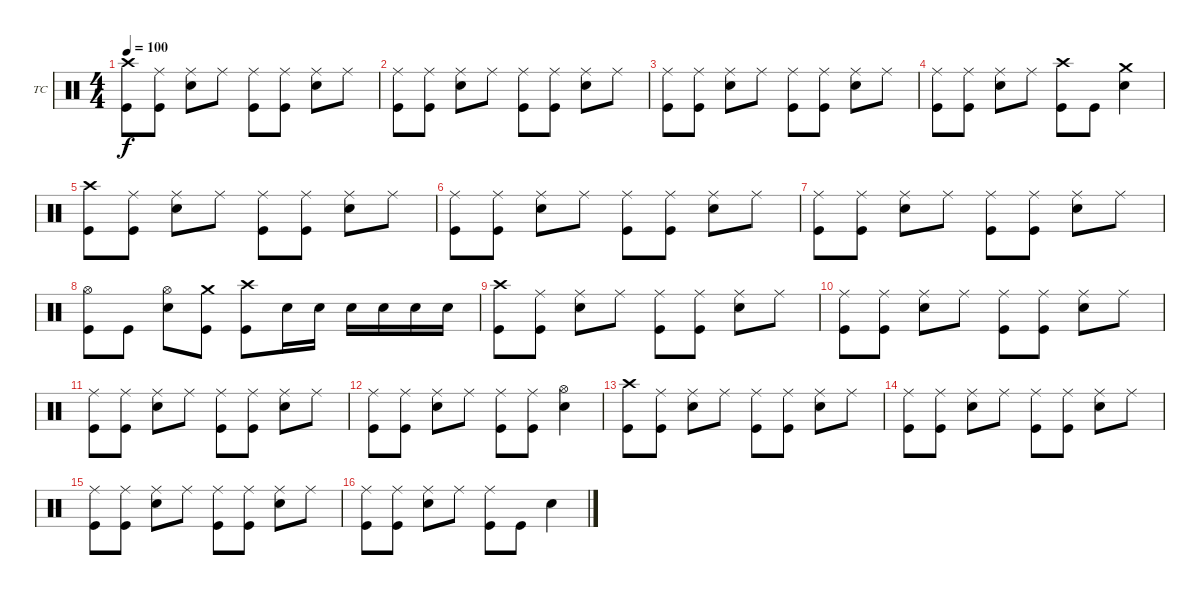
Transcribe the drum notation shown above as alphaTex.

\defaultSystemsLayout 4
\bracketExtendMode groupsimilarinstruments
\firstSystemTrackNameOrientation horizontal
\otherSystemsTrackNameOrientation horizontal
\track ("Drums - Tre Cool" "TC") {instrument percussion}
\staff {score}
\articulation defaults
\ts (4 4)
\tempo 100
\clef neutral
\ks c
("Crash high (hit)" "Kick (hit)").8{dy f} ("Ride (middle)" "Kick (hit)").8 ("Ride (middle)" "Snare (hit) 2").8 "Ride (middle)".8 ("Ride (middle)" "Kick (hit)").8 ("Ride (middle)" "Kick (hit)").8 ("Ride (middle)" "Snare (hit) 2").8 "Ride (middle)".8 |
("Ride (middle)" "Kick (hit)").8 ("Ride (middle)" "Kick (hit)").8 ("Ride (middle)" "Snare (hit) 2").8 "Ride (middle)".8 ("Ride (middle)" "Kick (hit)").8 ("Ride (middle)" "Kick (hit)").8 ("Ride (middle)" "Snare (hit) 2").8 "Ride (middle)".8 |
("Ride (middle)" "Kick (hit)").8 ("Ride (middle)" "Kick (hit)").8 ("Ride (middle)" "Snare (hit) 2").8 "Ride (middle)".8 ("Ride (middle)" "Kick (hit)").8 ("Ride (middle)" "Kick (hit)").8 ("Ride (middle)" "Snare (hit) 2").8 "Ride (middle)".8 |
("Ride (middle)" "Kick (hit)").8 ("Ride (middle)" "Kick (hit)").8 ("Ride (middle)" "Snare (hit) 2").8 "Ride (middle)".8 ("Crash high (hit)" "Kick (hit)").8 "Kick (hit)".8 ("Crash medium (hit)" "Snare (hit) 2").4 |
("Crash high (hit)" "Kick (hit)").8 ("Ride (middle)" "Kick (hit)").8 ("Ride (middle)" "Snare (hit) 2").8 "Ride (middle)".8 ("Ride (middle)" "Kick (hit)").8 ("Ride (middle)" "Kick (hit)").8 ("Ride (middle)" "Snare (hit) 2").8 "Ride (middle)".8 |
("Ride (middle)" "Kick (hit)").8 ("Ride (middle)" "Kick (hit)").8 ("Ride (middle)" "Snare (hit) 2").8 "Ride (middle)".8 ("Ride (middle)" "Kick (hit)").8 ("Ride (middle)" "Kick (hit)").8 ("Ride (middle)" "Snare (hit) 2").8 "Ride (middle)".8 |
("Ride (middle)" "Kick (hit)").8 ("Ride (middle)" "Kick (hit)").8 ("Ride (middle)" "Snare (hit) 2").8 "Ride (middle)".8 ("Ride (middle)" "Kick (hit)").8 ("Ride (middle)" "Kick (hit)").8 ("Ride (middle)" "Snare (hit) 2").8 "Ride (middle)".8 |
("Hi-Hat (open)" "Kick (hit)").8 "Kick (hit)".8 ("Hi-Hat (open)" "Snare (hit) 2").8 ("Crash medium (hit)" "Kick (hit)").8 ("Crash high (hit)" "Kick (hit)").8 "Snare (hit) 2".16 "Snare (hit) 2".16 "Snare (hit) 2".16 "Snare (hit) 2".16 "Snare (hit) 2".16 "Snare (hit) 2".16 |
("Crash high (hit)" "Kick (hit)").8 ("Ride (middle)" "Kick (hit)").8 ("Ride (middle)" "Snare (hit) 2").8 "Ride (middle)".8 ("Ride (middle)" "Kick (hit)").8 ("Ride (middle)" "Kick (hit)").8 ("Ride (middle)" "Snare (hit) 2").8 "Ride (middle)".8 |
("Ride (middle)" "Kick (hit)").8 ("Ride (middle)" "Kick (hit)").8 ("Ride (middle)" "Snare (hit) 2").8 "Ride (middle)".8 ("Ride (middle)" "Kick (hit)").8 ("Ride (middle)" "Kick (hit)").8 ("Ride (middle)" "Snare (hit) 2").8 "Ride (middle)".8 |
("Ride (middle)" "Kick (hit)").8 ("Ride (middle)" "Kick (hit)").8 ("Ride (middle)" "Snare (hit) 2").8 "Ride (middle)".8 ("Ride (middle)" "Kick (hit)").8 ("Ride (middle)" "Kick (hit)").8 ("Ride (middle)" "Snare (hit) 2").8 "Ride (middle)".8 |
("Ride (middle)" "Kick (hit)").8 ("Ride (middle)" "Kick (hit)").8 ("Ride (middle)" "Snare (hit) 2").8 "Ride (middle)".8 ("Ride (middle)" "Kick (hit)").8 ("Ride (middle)" "Kick (hit)").8 ("Hi-Hat (open)" "Snare (hit) 2").4 |
("Crash high (hit)" "Kick (hit)").8 ("Ride (middle)" "Kick (hit)").8 ("Ride (middle)" "Snare (hit) 2").8 "Ride (middle)".8 ("Ride (middle)" "Kick (hit)").8 ("Ride (middle)" "Kick (hit)").8 ("Ride (middle)" "Snare (hit) 2").8 "Ride (middle)".8 |
("Ride (middle)" "Kick (hit)").8 ("Ride (middle)" "Kick (hit)").8 ("Ride (middle)" "Snare (hit) 2").8 "Ride (middle)".8 ("Ride (middle)" "Kick (hit)").8 ("Ride (middle)" "Kick (hit)").8 ("Ride (middle)" "Snare (hit) 2").8 "Ride (middle)".8 |
("Ride (middle)" "Kick (hit)").8 ("Ride (middle)" "Kick (hit)").8 ("Ride (middle)" "Snare (hit) 2").8 "Ride (middle)".8 ("Ride (middle)" "Kick (hit)").8 ("Ride (middle)" "Kick (hit)").8 ("Ride (middle)" "Snare (hit) 2").8 "Ride (middle)".8 |
("Ride (middle)" "Kick (hit)").8 ("Ride (middle)" "Kick (hit)").8 ("Ride (middle)" "Snare (hit) 2").8 "Ride (middle)".8 ("Ride (middle)" "Kick (hit)").8 "Kick (hit)".8 "Snare (hit) 2".4
